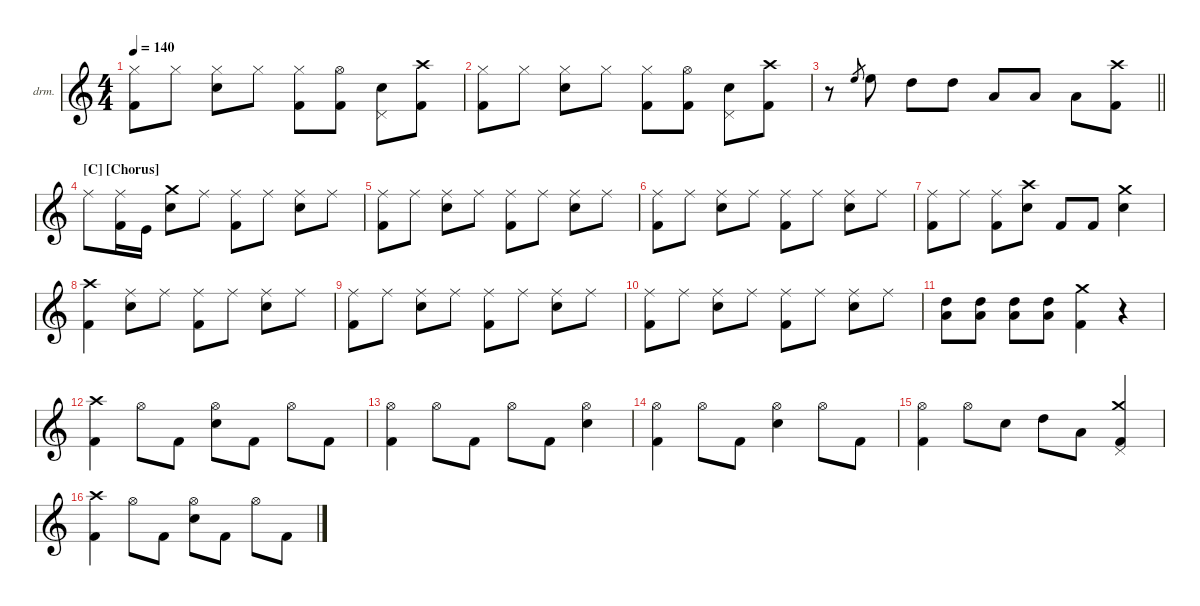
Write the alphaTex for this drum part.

\defaultSystemsLayout 4
\hideDynamics
\bracketExtendMode nobrackets
\firstSystemTrackNameOrientation horizontal
\track ("Sepehr Tajbakhsh {Nick Menza}" "drm.") {instrument percussion}
\staff {score}
\articulation defaults
\ts (4 4)
\tempo 140
\clef g2
\ks c
("Hi-Hat (closed)" "Kick (hit) 2").8{dy f beam Down} "Hi-Hat (closed)".8{beam Down} ("Hi-Hat (closed)" "Snare (hit) 2").8{beam Down} "Hi-Hat (closed)".8{beam Down} ("Hi-Hat (closed)" "Kick (hit) 2").8{beam Down} ("Hi-Hat (open)" "Kick (hit) 2").8{beam Down} ("Snare (hit) 2" "Pedal Hi-Hat (hit)").8{beam Down} ("Crash high (hit)" "Kick (hit) 2").8{beam Down} |
("Hi-Hat (closed)" "Kick (hit) 2").8{beam Down} "Hi-Hat (closed)".8{beam Down} ("Hi-Hat (closed)" "Snare (hit) 2").8{beam Down} "Hi-Hat (closed)".8{beam Down} ("Hi-Hat (closed)" "Kick (hit) 2").8{beam Down} ("Hi-Hat (open)" "Kick (hit) 2").8{beam Down} ("Snare (hit) 2" "Pedal Hi-Hat (hit)").8{beam Down} ("Crash high (hit)" "Kick (hit) 2").8{beam Down} |
\barLineRight lightlight
r.8{beam Down} "High Floor Tom (hit)".8{gr beam Up} "High Floor Tom (hit)".8{beam Down} "High Tom (hit)".8{beam Down} "High Tom (hit)".8{beam Down} "Low Tom (hit)".8{beam Up} "Low Tom (hit)".8{beam Up} "Low Tom (hit)".8{beam Down} ("Crash high (hit)" "Kick (hit) 2").8{beam Down} |
\section ("C" "[Chorus]")
"Ride (middle)".8{beam Down} ("Ride (middle)" "Kick (hit) 2").16{beam Down} "Kick (hit)".16{dy fff beam Down} ("Crash medium (hit)" "Snare (hit) 2").8{dy f beam Down} "Ride (middle)".8{beam Down} ("Ride (middle)" "Kick (hit) 2").8{beam Down} "Ride (middle)".8{beam Down} ("Ride (middle)" "Snare (hit) 2").8{beam Down} "Ride (middle)".8{beam Down} |
("Ride (middle)" "Kick (hit) 2").8{beam Down} "Ride (middle)".8{beam Down} ("Ride (middle)" "Snare (hit) 2").8{beam Down} "Ride (middle)".8{beam Down} ("Ride (middle)" "Kick (hit) 2").8{beam Down} "Ride (middle)".8{beam Down} ("Ride (middle)" "Snare (hit) 2").8{beam Down} "Ride (middle)".8{beam Down} |
("Ride (middle)" "Kick (hit) 2").8{beam Down} "Ride (middle)".8{beam Down} ("Ride (middle)" "Snare (hit) 2").8{beam Down} "Ride (middle)".8{beam Down} ("Ride (middle)" "Kick (hit) 2").8{beam Down} "Ride (middle)".8{beam Down} ("Ride (middle)" "Snare (hit) 2").8{beam Down} "Ride (middle)".8{beam Down} |
("Ride (middle)" "Kick (hit) 2").8{beam Down} "Ride (middle)".8{beam Down} ("Ride (middle)" "Kick (hit) 2").8{beam Down} ("Crash high (hit)" "Snare (hit) 2").8{beam Down} "Kick (hit) 2".8{dy fff beam Up} "Kick (hit) 2".8{beam Up} ("Crash medium (hit)" "Snare (hit) 2").4{dy f beam Down} |
("Crash high (hit)" "Kick (hit) 2").4{beam Down} ("Ride (middle)" "Snare (hit) 2").8{beam Down} "Ride (middle)".8{beam Down} ("Ride (middle)" "Kick (hit) 2").8{beam Down} "Ride (middle)".8{beam Down} ("Ride (middle)" "Snare (hit) 2").8{beam Down} "Ride (middle)".8{beam Down} |
("Ride (middle)" "Kick (hit) 2").8{beam Down} "Ride (middle)".8{beam Down} ("Ride (middle)" "Snare (hit) 2").8{beam Down} "Ride (middle)".8{beam Down} ("Ride (middle)" "Kick (hit) 2").8{beam Down} "Ride (middle)".8{beam Down} ("Ride (middle)" "Snare (hit) 2").8{beam Down} "Ride (middle)".8{beam Down} |
("Ride (middle)" "Kick (hit) 2").8{beam Down} "Ride (middle)".8{beam Down} ("Ride (middle)" "Snare (hit) 2").8{beam Down} "Ride (middle)".8{beam Down} ("Ride (middle)" "Kick (hit) 2").8{beam Down} "Ride (middle)".8{beam Down} ("Ride (middle)" "Snare (hit) 2").8{beam Down} "Ride (middle)".8{beam Down} |
("High Tom (hit)" "Low Tom (hit)").8{beam Down} ("High Tom (hit)" "Low Tom (hit)").8{beam Down} ("High Tom (hit)" "Low Tom (hit)").8{beam Down} ("High Tom (hit)" "Low Tom (hit)").8{beam Down} ("Crash medium (hit)" "Kick (hit) 2").4{beam Down} r.4{beam Down} |
("Crash high (hit)" "Kick (hit) 2").4{beam Down} "Hi-Hat (open)".8{beam Down} "Kick (hit) 2".8{dy fff beam Down} ("Hi-Hat (open)" "Snare (hit) 2").8{dy f beam Down} "Kick (hit) 2".8{dy fff beam Down} "Hi-Hat (open)".8{dy f beam Down} "Kick (hit) 2".8{dy fff beam Down} |
("Hi-Hat (open)" "Kick (hit) 2").4{beam Down} "Hi-Hat (open)".8{dy f beam Down} "Kick (hit) 2".8{dy fff beam Down} "Hi-Hat (open)".8{dy f beam Down} "Kick (hit) 2".8{dy fff beam Down} ("Hi-Hat (open)" "Snare (hit) 2").4{dy f beam Down} |
("Hi-Hat (open)" "Kick (hit) 2").4{beam Down} "Hi-Hat (open)".8{beam Down} "Kick (hit) 2".8{dy fff beam Down} ("Hi-Hat (open)" "Snare (hit) 2").4{dy f beam Down} "Hi-Hat (open)".8{beam Down} "Kick (hit) 2".8{dy fff beam Down} |
("Hi-Hat (open)" "Kick (hit) 2").4{beam Down} "Hi-Hat (open)".8{dy f beam Down} "Snare (hit) 2".8{beam Down} "High Tom (hit)".8{beam Down} "Low Tom (hit)".8{beam Down} ("Crash medium (hit)" "Kick (hit) 2" "Pedal Hi-Hat (hit)").4{beam Up} |
("Crash high (hit)" "Kick (hit) 2").4{beam Down} "Hi-Hat (open)".8{beam Down} "Kick (hit) 2".8{dy fff beam Down} ("Hi-Hat (open)" "Snare (hit) 2").8{dy f beam Down} "Kick (hit) 2".8{dy fff beam Down} "Hi-Hat (open)".8{dy f beam Down} "Kick (hit) 2".8{dy fff beam Down}
